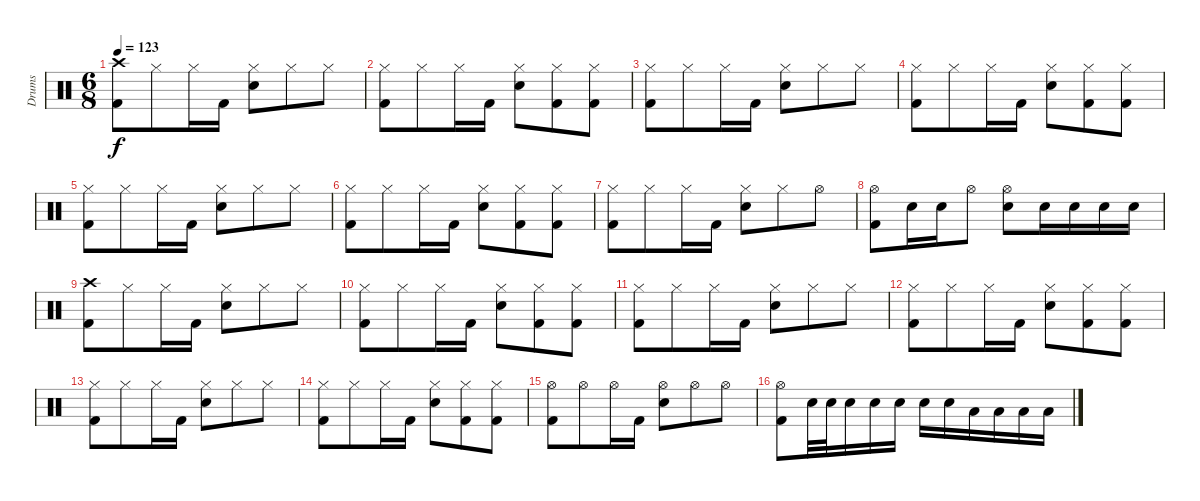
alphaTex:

\track ("Drums" "Drums") {instrument percussion}
\staff {score}
\articulation defaults
\ts (6 8)
\tempo 123
\clef neutral
\ks c
("Crash high (hit)" "Kick (hit) 2").8{dy f} "Hi-Hat (closed)".8 "Hi-Hat (closed)".16 "Kick (hit) 2".16 ("Hi-Hat (closed)" "Electric Snare (hit)").8 "Hi-Hat (closed)".8 "Hi-Hat (closed)".8 |
("Hi-Hat (closed)" "Kick (hit) 2").8 "Hi-Hat (closed)".8 "Hi-Hat (closed)".16 "Kick (hit) 2".16 ("Hi-Hat (closed)" "Electric Snare (hit)").8 ("Hi-Hat (closed)" "Kick (hit) 2").8 ("Hi-Hat (closed)" "Kick (hit) 2").8 |
("Hi-Hat (closed)" "Kick (hit) 2").8 "Hi-Hat (closed)".8 "Hi-Hat (closed)".16 "Kick (hit) 2".16 ("Hi-Hat (closed)" "Electric Snare (hit)").8 "Hi-Hat (closed)".8 "Hi-Hat (closed)".8 |
("Hi-Hat (closed)" "Kick (hit) 2").8 "Hi-Hat (closed)".8 "Hi-Hat (closed)".16 "Kick (hit) 2".16 ("Hi-Hat (closed)" "Electric Snare (hit)").8 ("Hi-Hat (closed)" "Kick (hit) 2").8 ("Hi-Hat (closed)" "Kick (hit) 2").8 |
("Hi-Hat (closed)" "Kick (hit) 2").8 "Hi-Hat (closed)".8 "Hi-Hat (closed)".16 "Kick (hit) 2".16 ("Hi-Hat (closed)" "Electric Snare (hit)").8 "Hi-Hat (closed)".8 "Hi-Hat (closed)".8 |
("Hi-Hat (closed)" "Kick (hit) 2").8 "Hi-Hat (closed)".8 "Hi-Hat (closed)".16 "Kick (hit) 2".16 ("Hi-Hat (closed)" "Electric Snare (hit)").8 ("Hi-Hat (closed)" "Kick (hit) 2").8 ("Hi-Hat (closed)" "Kick (hit) 2").8 |
("Hi-Hat (closed)" "Kick (hit) 2").8 "Hi-Hat (closed)".8 "Hi-Hat (closed)".16 "Kick (hit) 2".16 ("Hi-Hat (closed)" "Electric Snare (hit)").8 "Hi-Hat (closed)".8 "Hi-Hat (open)".8 |
("Hi-Hat (open)" "Kick (hit) 2").8 "Electric Snare (hit)".16 "Electric Snare (hit)".16 "Hi-Hat (open)".8 ("Hi-Hat (open)" "Electric Snare (hit)").8 "Electric Snare (hit)".16 "Electric Snare (hit)".16 "Electric Snare (hit)".16 "Electric Snare (hit)".16 |
("Crash high (hit)" "Kick (hit) 2").8 "Hi-Hat (closed)".8 "Hi-Hat (closed)".16 "Kick (hit) 2".16 ("Hi-Hat (closed)" "Electric Snare (hit)").8 "Hi-Hat (closed)".8 "Hi-Hat (closed)".8 |
("Hi-Hat (closed)" "Kick (hit) 2").8 "Hi-Hat (closed)".8 "Hi-Hat (closed)".16 "Kick (hit) 2".16 ("Hi-Hat (closed)" "Electric Snare (hit)").8 ("Hi-Hat (closed)" "Kick (hit) 2").8 ("Hi-Hat (closed)" "Kick (hit) 2").8 |
("Hi-Hat (closed)" "Kick (hit) 2").8 "Hi-Hat (closed)".8 "Hi-Hat (closed)".16 "Kick (hit) 2".16 ("Hi-Hat (closed)" "Electric Snare (hit)").8 "Hi-Hat (closed)".8 "Hi-Hat (closed)".8 |
("Hi-Hat (closed)" "Kick (hit) 2").8 "Hi-Hat (closed)".8 "Hi-Hat (closed)".16 "Kick (hit) 2".16 ("Hi-Hat (closed)" "Electric Snare (hit)").8 ("Hi-Hat (closed)" "Kick (hit) 2").8 ("Hi-Hat (closed)" "Kick (hit) 2").8 |
("Hi-Hat (closed)" "Kick (hit) 2").8 "Hi-Hat (closed)".8 "Hi-Hat (closed)".16 "Kick (hit) 2".16 ("Hi-Hat (closed)" "Electric Snare (hit)").8 "Hi-Hat (closed)".8 "Hi-Hat (closed)".8 |
("Hi-Hat (closed)" "Kick (hit) 2").8 "Hi-Hat (closed)".8 "Hi-Hat (closed)".16 "Kick (hit) 2".16 ("Hi-Hat (closed)" "Electric Snare (hit)").8 ("Hi-Hat (closed)" "Kick (hit) 2").8 ("Hi-Hat (closed)" "Kick (hit) 2").8 |
("Hi-Hat (open)" "Kick (hit) 2").8 "Hi-Hat (open)".8 "Hi-Hat (open)".16 "Kick (hit) 2".16 ("Hi-Hat (open)" "Electric Snare (hit)").8 "Hi-Hat (open)".8 "Hi-Hat (open)".8 |
("Hi-Hat (open)" "Kick (hit) 2").8 "Electric Snare (hit)".32 "Electric Snare (hit)".32 "Electric Snare (hit)".16 "Electric Snare (hit)".16 "Electric Snare (hit)".16 "Electric Snare (hit)".16 "Electric Snare (hit)".16 "Low Tom (hit)".16 "Low Tom (hit)".16 "Low Floor Tom (hit)".16 "Low Floor Tom (hit)".16
